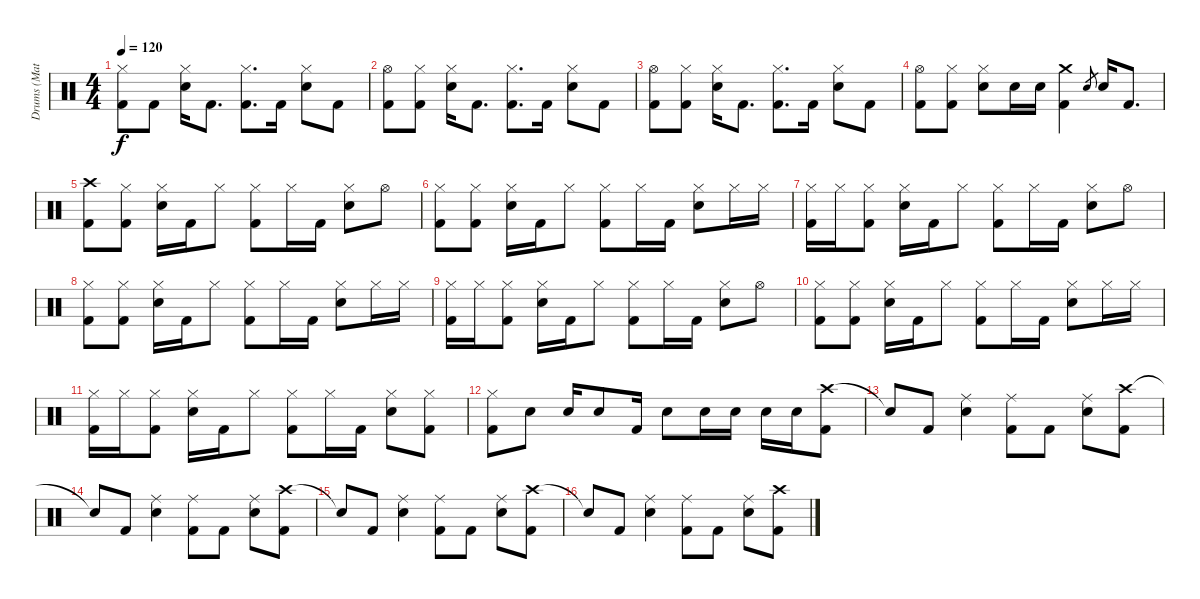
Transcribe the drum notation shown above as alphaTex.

\track ("Drums (Matt)" "Drums (Mat") {instrument percussion}
\staff {score}
\articulation defaults
\ts (4 4)
\tempo 120
\clef neutral
\ks c
("Hi-Hat (closed)" "Kick (hit) 2").8{dy f} "Kick (hit) 2".8 ("Hi-Hat (closed)" "Snare (hit) 2").16 "Kick (hit) 2".8{d} ("Hi-Hat (closed)" "Kick (hit) 2").8{d} "Kick (hit) 2".16 ("Hi-Hat (closed)" "Snare (hit) 2").8 "Kick (hit) 2".8 |
("Hi-Hat (open)" "Kick (hit) 2").8 ("Hi-Hat (closed)" "Kick (hit) 2").8 ("Hi-Hat (closed)" "Snare (hit) 2").16 "Kick (hit) 2".8{d} ("Hi-Hat (closed)" "Kick (hit) 2").8{d} "Kick (hit) 2".16 ("Hi-Hat (closed)" "Snare (hit) 2").8 "Kick (hit) 2".8 |
("Hi-Hat (open)" "Kick (hit) 2").8 ("Hi-Hat (closed)" "Kick (hit) 2").8 ("Hi-Hat (closed)" "Snare (hit) 2").16 "Kick (hit) 2".8{d} ("Hi-Hat (closed)" "Kick (hit) 2").8{d} "Kick (hit) 2".16 ("Hi-Hat (closed)" "Snare (hit) 2").8 "Kick (hit) 2".8 |
("Hi-Hat (open)" "Kick (hit) 2").8 ("Hi-Hat (closed)" "Kick (hit) 2").8 ("Hi-Hat (closed)" "Snare (hit) 2").8 "Snare (hit) 2".16 "Snare (hit) 2".16 ("Crash medium (hit)" "Kick (hit) 2").4 "Snare (hit) 2".8{gr} "Snare (hit) 2".16 "Kick (hit) 2".8{d} |
("Crash high (hit)" "Kick (hit) 2").8 ("Hi-Hat (closed)" "Kick (hit) 2").8 ("Hi-Hat (closed)" "Snare (hit) 2").16 "Kick (hit) 2".16 "Hi-Hat (closed)".8 ("Hi-Hat (closed)" "Kick (hit) 2").8 "Hi-Hat (closed)".16 "Kick (hit) 2".16 ("Hi-Hat (closed)" "Snare (hit) 2").8 "Hi-Hat (open)".8 |
("Hi-Hat (closed)" "Kick (hit) 2").8 ("Hi-Hat (closed)" "Kick (hit) 2").8 ("Hi-Hat (closed)" "Snare (hit) 2").16 "Kick (hit) 2".16 "Hi-Hat (closed)".8 ("Hi-Hat (closed)" "Kick (hit) 2").8 "Hi-Hat (closed)".16 "Kick (hit) 2".16 ("Hi-Hat (closed)" "Snare (hit) 2").8 "Hi-Hat (closed)".16 "Hi-Hat (closed)".16 |
("Hi-Hat (closed)" "Kick (hit) 2").16 "Hi-Hat (closed)".16 ("Hi-Hat (closed)" "Kick (hit) 2").8 ("Hi-Hat (closed)" "Snare (hit) 2").16 "Kick (hit) 2".16 "Hi-Hat (closed)".8 ("Hi-Hat (closed)" "Kick (hit) 2").8 "Hi-Hat (closed)".16 "Kick (hit) 2".16 ("Hi-Hat (closed)" "Snare (hit) 2").8 "Hi-Hat (open)".8 |
("Hi-Hat (closed)" "Kick (hit) 2").8 ("Hi-Hat (closed)" "Kick (hit) 2").8 ("Hi-Hat (closed)" "Snare (hit) 2").16 "Kick (hit) 2".16 "Hi-Hat (closed)".8 ("Hi-Hat (closed)" "Kick (hit) 2").8 "Hi-Hat (closed)".16 "Kick (hit) 2".16 ("Hi-Hat (closed)" "Snare (hit) 2").8 "Hi-Hat (closed)".16 "Hi-Hat (closed)".16 |
("Hi-Hat (closed)" "Kick (hit) 2").16 "Hi-Hat (closed)".16 ("Hi-Hat (closed)" "Kick (hit) 2").8 ("Hi-Hat (closed)" "Snare (hit) 2").16 "Kick (hit) 2".16 "Hi-Hat (closed)".8 ("Hi-Hat (closed)" "Kick (hit) 2").8 "Hi-Hat (closed)".16 "Kick (hit) 2".16 ("Hi-Hat (closed)" "Snare (hit) 2").8 "Hi-Hat (open)".8 |
("Hi-Hat (closed)" "Kick (hit) 2").8 ("Hi-Hat (closed)" "Kick (hit) 2").8 ("Hi-Hat (closed)" "Snare (hit) 2").16 "Kick (hit) 2".16 "Hi-Hat (closed)".8 ("Hi-Hat (closed)" "Kick (hit) 2").8 "Hi-Hat (closed)".16 "Kick (hit) 2".16 ("Hi-Hat (closed)" "Snare (hit) 2").8 "Hi-Hat (closed)".16 "Hi-Hat (closed)".16 |
("Hi-Hat (closed)" "Kick (hit) 2").16 "Hi-Hat (closed)".16 ("Hi-Hat (closed)" "Kick (hit) 2").8 ("Hi-Hat (closed)" "Snare (hit) 2").16 "Kick (hit) 2".16 "Hi-Hat (closed)".8 ("Hi-Hat (closed)" "Kick (hit) 2").8 "Hi-Hat (closed)".16 "Kick (hit) 2".16 ("Hi-Hat (closed)" "Snare (hit) 2").8 ("Hi-Hat (closed)" "Kick (hit) 2").8 |
("Hi-Hat (closed)" "Kick (hit) 2").8 "Snare (hit) 2".8 "Snare (hit) 2".16 "Snare (hit) 2".8 "Kick (hit) 2".16 "Snare (hit) 2".8 "Snare (hit) 2".16 "Snare (hit) 2".16 "Snare (hit) 2".16 "Snare (hit) 2".16 ("Crash high (hit)" "Kick (hit) 2").8 |
"Snare (hit)"{t}.8 "Kick (hit) 2".8 ("Ride (middle)" "Snare (hit) 2").4 ("Ride (middle)" "Kick (hit) 2").8 "Kick (hit) 2".8 ("Ride (middle)" "Snare (hit) 2").8 ("Crash high (hit)" "Kick (hit) 2").8 |
"Snare (hit)"{t}.8 "Kick (hit) 2".8 ("Ride (middle)" "Snare (hit) 2").4 ("Ride (middle)" "Kick (hit) 2").8 "Kick (hit) 2".8 ("Ride (middle)" "Snare (hit) 2").8 ("Crash high (hit)" "Kick (hit) 2").8 |
"Snare (hit)"{t}.8 "Kick (hit) 2".8 ("Ride (middle)" "Snare (hit) 2").4 ("Ride (middle)" "Kick (hit) 2").8 "Kick (hit) 2".8 ("Ride (middle)" "Snare (hit) 2").8 ("Crash high (hit)" "Kick (hit) 2").8 |
"Snare (hit)"{t}.8 "Kick (hit) 2".8 ("Ride (middle)" "Snare (hit) 2").4 ("Ride (middle)" "Kick (hit) 2").8 "Kick (hit) 2".8 ("Ride (middle)" "Snare (hit) 2").8 ("Crash high (hit)" "Kick (hit) 2").8
